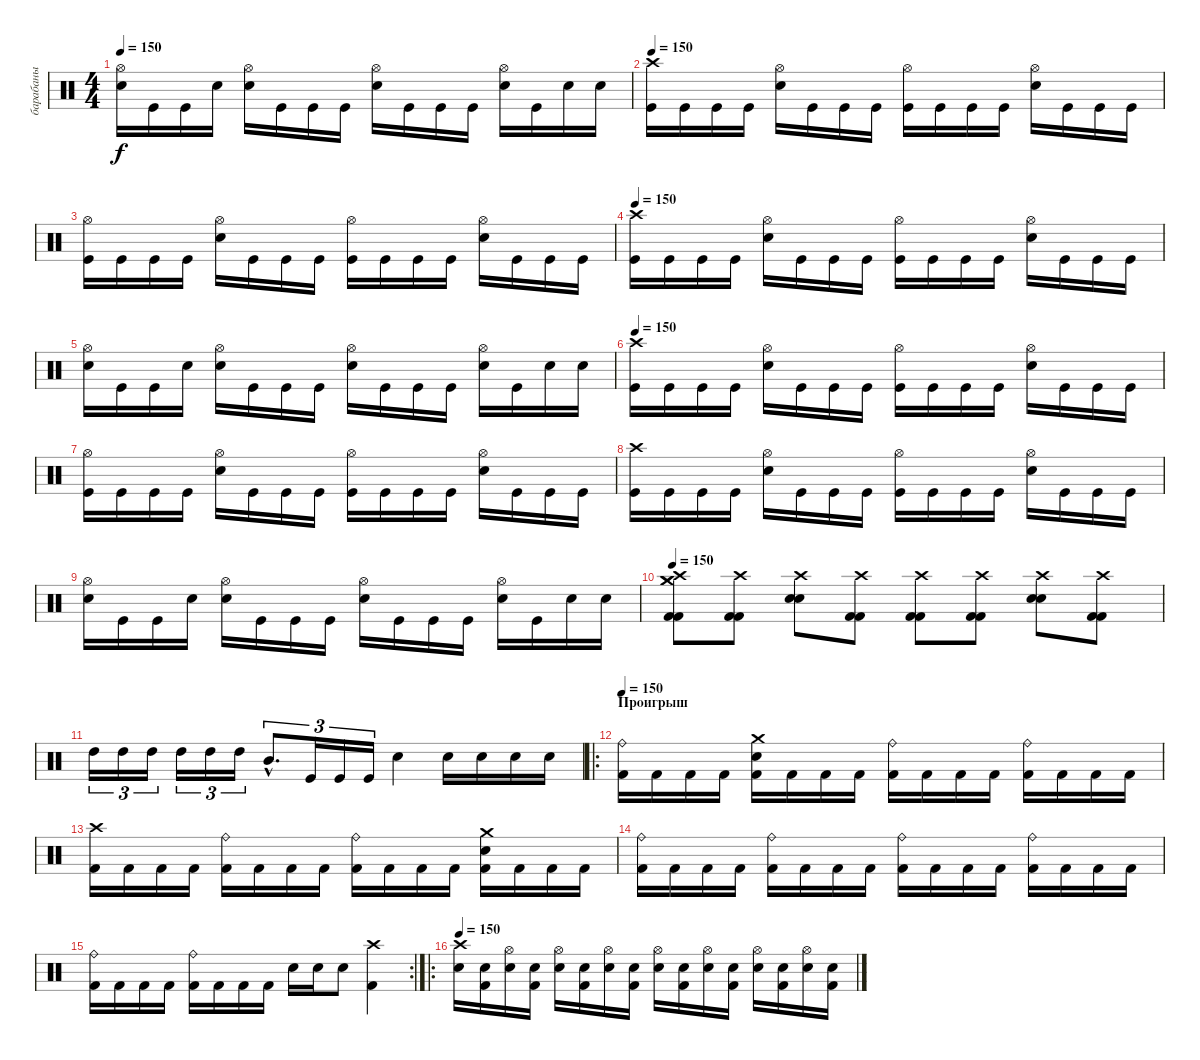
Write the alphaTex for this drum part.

\track ("барабаны" "барабаны") {instrument percussion}
\staff {score}
\articulation defaults
\ts (4 4)
\tempo 150
\clef neutral
\ks c
("Hi-Hat (open)" "Electric Snare (hit)").16{dy f} "Kick (hit)".16 "Kick (hit)".16 "Electric Snare (hit)".16 ("Hi-Hat (open)" "Electric Snare (hit)").16 "Kick (hit)".16 "Kick (hit)".16 "Kick (hit)".16 ("Hi-Hat (open)" "Electric Snare (hit)").16 "Kick (hit)".16 "Kick (hit)".16 "Kick (hit)".16 ("Hi-Hat (open)" "Electric Snare (hit)").16 "Kick (hit)".16 "Electric Snare (hit)".16 "Electric Snare (hit)".16 |
\tempo 150
("Crash high (hit)" "Kick (hit)").16 "Kick (hit)".16 "Kick (hit)".16 "Kick (hit)".16 ("Hi-Hat (open)" "Electric Snare (hit)").16 "Kick (hit)".16 "Kick (hit)".16 "Kick (hit)".16 ("Hi-Hat (open)" "Kick (hit)").16 "Kick (hit)".16 "Kick (hit)".16 "Kick (hit)".16 ("Hi-Hat (open)" "Electric Snare (hit)").16 "Kick (hit)".16 "Kick (hit)".16 "Kick (hit)".16 |
("Hi-Hat (open)" "Kick (hit)").16 "Kick (hit)".16 "Kick (hit)".16 "Kick (hit)".16 ("Hi-Hat (open)" "Electric Snare (hit)").16 "Kick (hit)".16 "Kick (hit)".16 "Kick (hit)".16 ("Hi-Hat (open)" "Kick (hit)").16 "Kick (hit)".16 "Kick (hit)".16 "Kick (hit)".16 ("Hi-Hat (open)" "Electric Snare (hit)").16 "Kick (hit)".16 "Kick (hit)".16 "Kick (hit)".16 |
\tempo 150
("Crash high (hit)" "Kick (hit)").16 "Kick (hit)".16 "Kick (hit)".16 "Kick (hit)".16 ("Hi-Hat (open)" "Electric Snare (hit)").16 "Kick (hit)".16 "Kick (hit)".16 "Kick (hit)".16 ("Hi-Hat (open)" "Kick (hit)").16 "Kick (hit)".16 "Kick (hit)".16 "Kick (hit)".16 ("Hi-Hat (open)" "Electric Snare (hit)").16 "Kick (hit)".16 "Kick (hit)".16 "Kick (hit)".16 |
("Hi-Hat (open)" "Electric Snare (hit)").16 "Kick (hit)".16 "Kick (hit)".16 "Electric Snare (hit)".16 ("Hi-Hat (open)" "Electric Snare (hit)").16 "Kick (hit)".16 "Kick (hit)".16 "Kick (hit)".16 ("Hi-Hat (open)" "Electric Snare (hit)").16 "Kick (hit)".16 "Kick (hit)".16 "Kick (hit)".16 ("Hi-Hat (open)" "Electric Snare (hit)").16 "Kick (hit)".16 "Electric Snare (hit)".16 "Electric Snare (hit)".16 |
\tempo 150
("Crash high (hit)" "Kick (hit)").16 "Kick (hit)".16 "Kick (hit)".16 "Kick (hit)".16 ("Hi-Hat (open)" "Electric Snare (hit)").16 "Kick (hit)".16 "Kick (hit)".16 "Kick (hit)".16 ("Hi-Hat (open)" "Kick (hit)").16 "Kick (hit)".16 "Kick (hit)".16 "Kick (hit)".16 ("Hi-Hat (open)" "Electric Snare (hit)").16 "Kick (hit)".16 "Kick (hit)".16 "Kick (hit)".16 |
("Hi-Hat (open)" "Kick (hit)").16 "Kick (hit)".16 "Kick (hit)".16 "Kick (hit)".16 ("Hi-Hat (open)" "Electric Snare (hit)").16 "Kick (hit)".16 "Kick (hit)".16 "Kick (hit)".16 ("Hi-Hat (open)" "Kick (hit)").16 "Kick (hit)".16 "Kick (hit)".16 "Kick (hit)".16 ("Hi-Hat (open)" "Electric Snare (hit)").16 "Kick (hit)".16 "Kick (hit)".16 "Kick (hit)".16 |
("Crash high (hit)" "Kick (hit)").16 "Kick (hit)".16 "Kick (hit)".16 "Kick (hit)".16 ("Hi-Hat (open)" "Electric Snare (hit)").16 "Kick (hit)".16 "Kick (hit)".16 "Kick (hit)".16 ("Hi-Hat (open)" "Kick (hit)").16 "Kick (hit)".16 "Kick (hit)".16 "Kick (hit)".16 ("Hi-Hat (open)" "Electric Snare (hit)").16 "Kick (hit)".16 "Kick (hit)".16 "Kick (hit)".16 |
("Hi-Hat (open)" "Electric Snare (hit)").16 "Kick (hit)".16 "Kick (hit)".16 "Electric Snare (hit)".16 ("Hi-Hat (open)" "Electric Snare (hit)").16 "Kick (hit)".16 "Kick (hit)".16 "Kick (hit)".16 ("Hi-Hat (open)" "Electric Snare (hit)").16 "Kick (hit)".16 "Kick (hit)".16 "Kick (hit)".16 ("Hi-Hat (open)" "Electric Snare (hit)").16 "Kick (hit)".16 "Electric Snare (hit)".16 "Electric Snare (hit)".16 |
\tempo 150
("Kick (hit) 2" "Kick (hit) 2" "Crash high (hit)" "Crash medium (hit)" "Crash medium (hit)").8 ("Kick (hit) 2" "Kick (hit) 2" "Crash high (hit)").8 ("Snare (hit) 2" "Snare (hit) 2" "Crash high (hit)").8 ("Kick (hit) 2" "Kick (hit) 2" "Crash high (hit)").8 ("Kick (hit) 2" "Kick (hit) 2" "Crash high (hit)").8 ("Kick (hit) 2" "Kick (hit) 2" "Crash high (hit)").8 ("Snare (hit) 2" "Snare (hit) 2" "Crash high (hit)").8 ("Kick (hit) 2" "Kick (hit) 2" "Crash high (hit)").8 |
"High Tom (hit)".16{tu (3 2)} "High Tom (hit)".16{tu (3 2)} "High Tom (hit)".16{tu (3 2)} "High Tom (hit)".16{tu (3 2)} "High Tom (hit)".16{tu (3 2)} "High Tom (hit)".16{tu (3 2)} "Mid Tom (hit)"{hac}.8{d tu (3 2)} "Kick (hit)".16{tu (3 2)} "Kick (hit)".16{tu (3 2)} "Kick (hit)".16{tu (3 2)} "Snare (hit) 2".4 "Snare (hit) 2".16 "Snare (hit) 2".16 "Snare (hit) 2".16 "Snare (hit) 2".16 |
\ro
\section ("" "Проигрыш")
\tempo 150
("Ride (bell)" "Kick (hit) 2").16 "Kick (hit) 2".16 "Kick (hit) 2".16 "Kick (hit) 2".16 ("Crash medium (hit)" "Electric Snare (hit)" "Kick (hit) 2").16 "Kick (hit) 2".16 "Kick (hit) 2".16 "Kick (hit) 2".16 ("Ride (bell)" "Kick (hit) 2").16 "Kick (hit) 2".16 "Kick (hit) 2".16 "Kick (hit) 2".16 ("Ride (bell)" "Kick (hit) 2").16 "Kick (hit) 2".16 "Kick (hit) 2".16 "Kick (hit) 2".16 |
("Crash high (hit)" "Kick (hit) 2").16 "Kick (hit) 2".16 "Kick (hit) 2".16 "Kick (hit) 2".16 ("Ride (bell)" "Kick (hit) 2").16 "Kick (hit) 2".16 "Kick (hit) 2".16 "Kick (hit) 2".16 ("Ride (bell)" "Kick (hit) 2").16 "Kick (hit) 2".16 "Kick (hit) 2".16 "Kick (hit) 2".16 ("Crash medium (hit)" "Electric Snare (hit)" "Kick (hit) 2").16 "Kick (hit) 2".16 "Kick (hit) 2".16 "Kick (hit) 2".16 |
("Ride (bell)" "Kick (hit) 2").16 "Kick (hit) 2".16 "Kick (hit) 2".16 "Kick (hit) 2".16 ("Ride (bell)" "Kick (hit) 2").16 "Kick (hit) 2".16 "Kick (hit) 2".16 "Kick (hit) 2".16 ("Ride (bell)" "Kick (hit) 2").16 "Kick (hit) 2".16 "Kick (hit) 2".16 "Kick (hit) 2".16 ("Ride (bell)" "Kick (hit) 2").16 "Kick (hit) 2".16 "Kick (hit) 2".16 "Kick (hit) 2".16 |
\rc 2
("Ride (bell)" "Kick (hit) 2").16 "Kick (hit) 2".16 "Kick (hit) 2".16 "Kick (hit) 2".16 ("Ride (bell)" "Kick (hit) 2").16 "Kick (hit) 2".16 "Kick (hit) 2".16 "Kick (hit) 2".16 "Electric Snare (hit)".16 "Electric Snare (hit)".16 "Electric Snare (hit)".8 ("Crash high (hit)" "Kick (hit) 2").4 |
\ro
\tempo 150
("Electric Snare (hit)" "Crash high (hit)").16 ("Kick (hit) 2" "Electric Snare (hit)").16 ("Electric Snare (hit)" "Hi-Hat (open)").16 ("Kick (hit) 2" "Electric Snare (hit)").16 ("Electric Snare (hit)" "Hi-Hat (open)").16 ("Kick (hit) 2" "Electric Snare (hit)").16 ("Electric Snare (hit)" "Hi-Hat (open)").16 ("Kick (hit) 2" "Electric Snare (hit)").16 ("Electric Snare (hit)" "Hi-Hat (open)").16 ("Kick (hit) 2" "Electric Snare (hit)").16 ("Electric Snare (hit)" "Hi-Hat (open)").16 ("Kick (hit) 2" "Electric Snare (hit)").16 ("Electric Snare (hit)" "Hi-Hat (open)").16 ("Kick (hit) 2" "Electric Snare (hit)").16 ("Electric Snare (hit)" "Hi-Hat (open)").16 ("Kick (hit) 2" "Electric Snare (hit)").16
